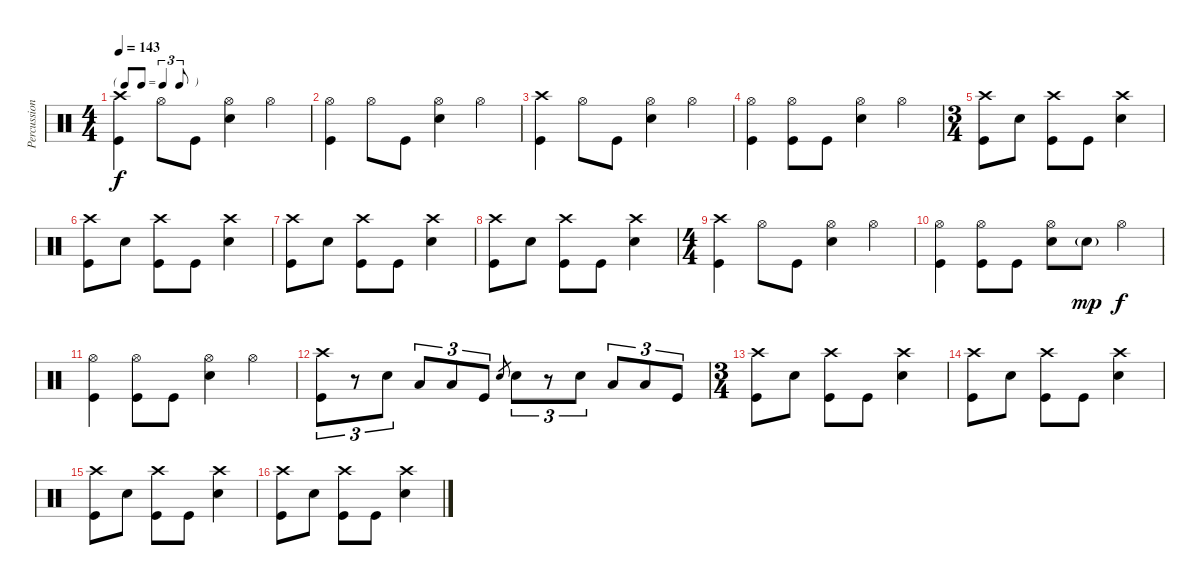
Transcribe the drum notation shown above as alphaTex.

\track ("Percussion" "Percussion") {instrument percussion}
\staff {score}
\articulation defaults
\ts (4 4)
\tf triplet8th
\tempo 143
\clef neutral
\ks c
("Crash high (hit)" "Kick (hit)").4{dy f} "Hi-Hat (open)".8 "Kick (hit)".8 ("Hi-Hat (open)" "Electric Snare (hit)").4 "Hi-Hat (open)".4 |
("Hi-Hat (open)" "Kick (hit)").4 "Hi-Hat (open)".8 "Kick (hit)".8 ("Hi-Hat (open)" "Electric Snare (hit)").4 "Hi-Hat (open)".4 |
("Crash high (hit)" "Kick (hit)").4 "Hi-Hat (open)".8 "Kick (hit)".8 ("Hi-Hat (open)" "Electric Snare (hit)").4 "Hi-Hat (open)".4 |
("Hi-Hat (open)" "Kick (hit)").4 ("Hi-Hat (open)" "Kick (hit)").8 "Kick (hit)".8 ("Hi-Hat (open)" "Electric Snare (hit)").4 "Hi-Hat (open)".4 |
\ts (3 4)
("Crash high (hit)" "Kick (hit)").8 "Electric Snare (hit)".8 ("Crash high (hit)" "Kick (hit)").8 "Kick (hit)".8 ("Crash high (hit)" "Electric Snare (hit)").4 |
("Crash high (hit)" "Kick (hit)").8 "Electric Snare (hit)".8 ("Crash high (hit)" "Kick (hit)").8 "Kick (hit)".8 ("Crash high (hit)" "Electric Snare (hit)").4 |
("Crash high (hit)" "Kick (hit)").8 "Electric Snare (hit)".8 ("Crash high (hit)" "Kick (hit)").8 "Kick (hit)".8 ("Crash high (hit)" "Electric Snare (hit)").4 |
("Crash high (hit)" "Kick (hit)").8 "Electric Snare (hit)".8 ("Crash high (hit)" "Kick (hit)").8 "Kick (hit)".8 ("Crash high (hit)" "Electric Snare (hit)").4 |
\ts (4 4)
("Crash high (hit)" "Kick (hit)").4 "Hi-Hat (open)".8 "Kick (hit)".8 ("Hi-Hat (open)" "Electric Snare (hit)").4 "Hi-Hat (open)".4 |
("Hi-Hat (open)" "Kick (hit)").4 ("Hi-Hat (open)" "Kick (hit)").8 "Kick (hit)".8 ("Hi-Hat (open)" "Electric Snare (hit)").8 "Electric Snare (hit)"{g}.8{dy mp} "Hi-Hat (open)".4{dy f} |
("Hi-Hat (open)" "Kick (hit)").4 ("Hi-Hat (open)" "Kick (hit)").8 "Kick (hit)".8 ("Hi-Hat (open)" "Electric Snare (hit)").4 "Hi-Hat (open)".4 |
("Crash high (hit)" "Kick (hit)").8{tu (3 2)} r.8{tu (3 2)} "Electric Snare (hit)".8{tu (3 2)} "Low Tom (hit)".8{tu (3 2)} "Low Floor Tom (hit)".8{tu (3 2)} "Kick (hit)".8{tu (3 2)} "Electric Snare (hit)".8{gr} "Electric Snare (hit)".8{tu (3 2)} r.8{tu (3 2)} "Electric Snare (hit)".8{tu (3 2)} "Low Tom (hit)".8{tu (3 2)} "Low Floor Tom (hit)".8{tu (3 2)} "Kick (hit)".8{tu (3 2)} |
\ts (3 4)
("Crash high (hit)" "Kick (hit)").8 "Electric Snare (hit)".8 ("Crash high (hit)" "Kick (hit)").8 "Kick (hit)".8 ("Crash high (hit)" "Electric Snare (hit)").4 |
("Crash high (hit)" "Kick (hit)").8 "Electric Snare (hit)".8 ("Crash high (hit)" "Kick (hit)").8 "Kick (hit)".8 ("Crash high (hit)" "Electric Snare (hit)").4 |
("Crash high (hit)" "Kick (hit)").8 "Electric Snare (hit)".8 ("Crash high (hit)" "Kick (hit)").8 "Kick (hit)".8 ("Crash high (hit)" "Electric Snare (hit)").4 |
("Crash high (hit)" "Kick (hit)").8 "Electric Snare (hit)".8 ("Crash high (hit)" "Kick (hit)").8 "Kick (hit)".8 ("Crash high (hit)" "Electric Snare (hit)").4
